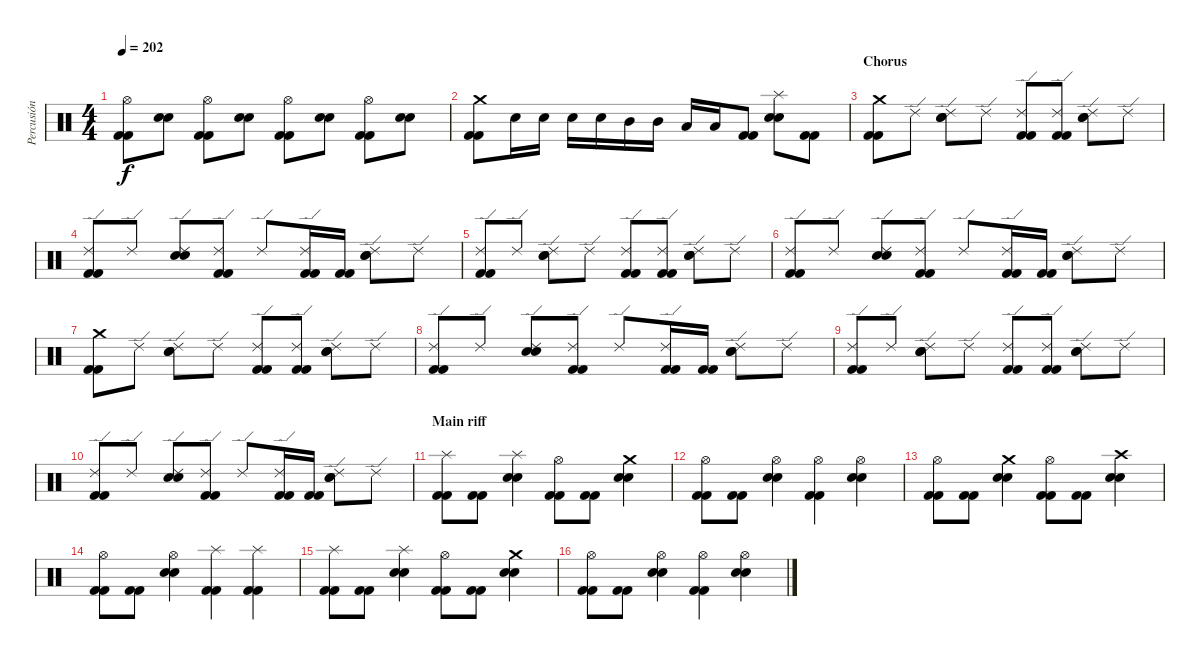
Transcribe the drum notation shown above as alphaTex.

\track ("Percusión" "Percusión") {instrument percussion}
\staff {score}
\articulation defaults
\ts (4 4)
\tempo 202
\clef neutral
\ks c
("Hi-Hat (open)" "Kick (hit) 2" "Kick (hit) 2").8{dy f} ("Snare (hit) 2" "Snare (hit) 2").8 ("Hi-Hat (open)" "Kick (hit) 2" "Kick (hit) 2").8 ("Snare (hit) 2" "Snare (hit) 2").8 ("Hi-Hat (open)" "Kick (hit) 2" "Kick (hit) 2").8 ("Snare (hit) 2" "Snare (hit) 2").8 ("Hi-Hat (open)" "Kick (hit) 2" "Kick (hit) 2").8 ("Snare (hit) 2" "Snare (hit) 2").8 |
("Crash medium (hit)" "Kick (hit) 2" "Kick (hit) 2").8 "Snare (hit) 2".16 "Snare (hit) 2".16 "Snare (hit) 2".16 "Snare (hit) 2".16 "Mid Tom (hit)".16 "Mid Tom (hit)".16 "Low Tom (hit)".16 "Low Tom (hit)".16 ("Kick (hit) 2" "Kick (hit) 2").8 ("Splash (hit)" "Snare (hit) 2" "Snare (hit) 2").8 ("Kick (hit) 2" "Kick (hit) 2").8 |
\section ("" "Chorus")
("Crash medium (hit)" "Kick (hit) 2" "Kick (hit) 2").8 "Ride (edge) 2".8 ("Ride (edge) 2" "Snare (hit) 2" "Snare (hit) 2").8 "Ride (edge) 2".8 ("Ride (edge) 2" "Kick (hit) 2" "Kick (hit) 2").8 ("Ride (edge) 2" "Kick (hit) 2" "Kick (hit) 2").8 ("Ride (edge) 2" "Snare (hit) 2" "Snare (hit) 2").8 "Ride (edge) 2".8 |
("Ride (edge) 2" "Kick (hit) 2" "Kick (hit) 2").8 "Ride (edge) 2".8 ("Ride (edge) 2" "Snare (hit) 2" "Snare (hit) 2").8 ("Ride (edge) 2" "Kick (hit) 2" "Kick (hit) 2").8 "Ride (edge) 2".8 ("Ride (edge) 2" "Kick (hit) 2" "Kick (hit) 2").16 ("Kick (hit) 2" "Kick (hit) 2").16 ("Ride (edge) 2" "Snare (hit) 2" "Snare (hit) 2").8 "Ride (edge) 2".8 |
("Ride (edge) 2" "Kick (hit) 2" "Kick (hit) 2").8 "Ride (edge) 2".8 ("Ride (edge) 2" "Snare (hit) 2" "Snare (hit) 2").8 "Ride (edge) 2".8 ("Ride (edge) 2" "Kick (hit) 2" "Kick (hit) 2").8 ("Ride (edge) 2" "Kick (hit) 2" "Kick (hit) 2").8 ("Ride (edge) 2" "Snare (hit) 2" "Snare (hit) 2").8 "Ride (edge) 2".8 |
("Ride (edge) 2" "Kick (hit) 2" "Kick (hit) 2").8 "Ride (edge) 2".8 ("Ride (edge) 2" "Snare (hit) 2" "Snare (hit) 2").8 ("Ride (edge) 2" "Kick (hit) 2" "Kick (hit) 2").8 "Ride (edge) 2".8 ("Ride (edge) 2" "Kick (hit) 2" "Kick (hit) 2").16 ("Kick (hit) 2" "Kick (hit) 2").16 ("Ride (edge) 2" "Snare (hit) 2" "Snare (hit) 2").8 "Ride (edge) 2".8 |
("Crash medium (hit)" "Kick (hit) 2" "Kick (hit) 2").8 "Ride (edge) 2".8 ("Ride (edge) 2" "Snare (hit) 2" "Snare (hit) 2").8 "Ride (edge) 2".8 ("Ride (edge) 2" "Kick (hit) 2" "Kick (hit) 2").8 ("Ride (edge) 2" "Kick (hit) 2" "Kick (hit) 2").8 ("Ride (edge) 2" "Snare (hit) 2" "Snare (hit) 2").8 "Ride (edge) 2".8 |
("Ride (edge) 2" "Kick (hit) 2" "Kick (hit) 2").8 "Ride (edge) 2".8 ("Ride (edge) 2" "Snare (hit) 2" "Snare (hit) 2").8 ("Ride (edge) 2" "Kick (hit) 2" "Kick (hit) 2").8 "Ride (edge) 2".8 ("Ride (edge) 2" "Kick (hit) 2" "Kick (hit) 2").16 ("Kick (hit) 2" "Kick (hit) 2").16 ("Ride (edge) 2" "Snare (hit) 2" "Snare (hit) 2").8 "Ride (edge) 2".8 |
("Ride (edge) 2" "Kick (hit) 2" "Kick (hit) 2").8 "Ride (edge) 2".8 ("Ride (edge) 2" "Snare (hit) 2" "Snare (hit) 2").8 "Ride (edge) 2".8 ("Ride (edge) 2" "Kick (hit) 2" "Kick (hit) 2").8 ("Ride (edge) 2" "Kick (hit) 2" "Kick (hit) 2").8 ("Ride (edge) 2" "Snare (hit) 2" "Snare (hit) 2").8 "Ride (edge) 2".8 |
("Ride (edge) 2" "Kick (hit) 2" "Kick (hit) 2").8 "Ride (edge) 2".8 ("Ride (edge) 2" "Snare (hit) 2" "Snare (hit) 2").8 ("Ride (edge) 2" "Kick (hit) 2" "Kick (hit) 2").8 "Ride (edge) 2".8 ("Ride (edge) 2" "Kick (hit) 2" "Kick (hit) 2").16 ("Kick (hit) 2" "Kick (hit) 2").16 ("Ride (edge) 2" "Snare (hit) 2" "Snare (hit) 2").8 "Ride (edge) 2".8 |
\section ("" "Main riff")
("Splash (hit)" "Kick (hit) 2" "Kick (hit) 2").8 ("Kick (hit) 2" "Kick (hit) 2").8 ("Splash (hit)" "Snare (hit) 2" "Snare (hit) 2").4 ("Hi-Hat (open)" "Kick (hit) 2" "Kick (hit) 2").8 ("Kick (hit) 2" "Kick (hit) 2").8 ("Crash medium (hit)" "Snare (hit) 2" "Snare (hit) 2").4 |
("Hi-Hat (open)" "Kick (hit) 2" "Kick (hit) 2").8 ("Kick (hit) 2" "Kick (hit) 2").8 ("Hi-Hat (open)" "Snare (hit) 2" "Snare (hit) 2").4 ("Hi-Hat (open)" "Kick (hit) 2" "Kick (hit) 2").4 ("Hi-Hat (open)" "Snare (hit) 2" "Snare (hit) 2").4 |
("Hi-Hat (open)" "Kick (hit) 2" "Kick (hit) 2").8 ("Kick (hit) 2" "Kick (hit) 2").8 ("Crash medium (hit)" "Snare (hit) 2" "Snare (hit) 2").4 ("Hi-Hat (open)" "Kick (hit) 2" "Kick (hit) 2").8 ("Kick (hit) 2" "Kick (hit) 2").8 ("Crash high (hit)" "Snare (hit) 2" "Snare (hit) 2").4 |
("Hi-Hat (open)" "Kick (hit) 2" "Kick (hit) 2").8 ("Kick (hit) 2" "Kick (hit) 2").8 ("Hi-Hat (open)" "Snare (hit) 2" "Snare (hit) 2").4 ("Splash (hit)" "Kick (hit) 2" "Kick (hit) 2").4 ("Splash (hit)" "Kick (hit) 2" "Kick (hit) 2").4 |
("Splash (hit)" "Kick (hit) 2" "Kick (hit) 2").8 ("Kick (hit) 2" "Kick (hit) 2").8 ("Splash (hit)" "Snare (hit) 2" "Snare (hit) 2").4 ("Hi-Hat (open)" "Kick (hit) 2" "Kick (hit) 2").8 ("Kick (hit) 2" "Kick (hit) 2").8 ("Crash medium (hit)" "Snare (hit) 2" "Snare (hit) 2").4 |
("Hi-Hat (open)" "Kick (hit) 2" "Kick (hit) 2").8 ("Kick (hit) 2" "Kick (hit) 2").8 ("Hi-Hat (open)" "Snare (hit) 2" "Snare (hit) 2").4 ("Hi-Hat (open)" "Kick (hit) 2" "Kick (hit) 2").4 ("Hi-Hat (open)" "Snare (hit) 2" "Snare (hit) 2").4
